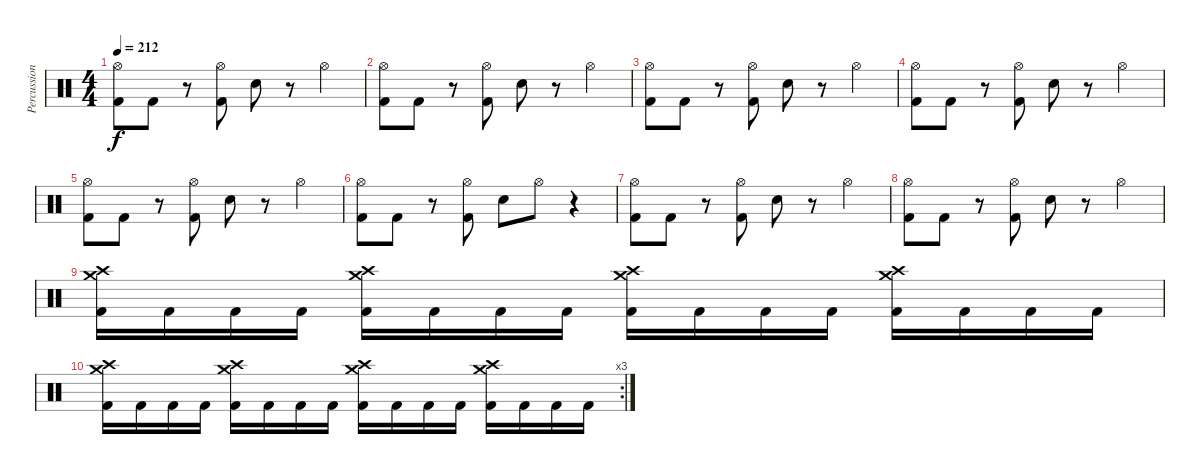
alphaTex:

\track ("Percussion" "Percussion") {instrument percussion}
\staff {score}
\articulation defaults
\ts (4 4)
\tempo 212
\clef neutral
\ks c
("Hi-Hat (open)" "Kick (hit) 2").8{dy f} "Kick (hit) 2".8 r.8 ("Hi-Hat (open)" "Kick (hit) 2").8 "Snare (hit) 2".8 r.8 "Hi-Hat (open)".4 |
("Hi-Hat (open)" "Kick (hit) 2").8 "Kick (hit) 2".8 r.8 ("Hi-Hat (open)" "Kick (hit) 2").8 "Snare (hit) 2".8 r.8 "Hi-Hat (open)".4 |
("Hi-Hat (open)" "Kick (hit) 2").8 "Kick (hit) 2".8 r.8 ("Hi-Hat (open)" "Kick (hit) 2").8 "Snare (hit) 2".8 r.8 "Hi-Hat (open)".4 |
("Hi-Hat (open)" "Kick (hit) 2").8 "Kick (hit) 2".8 r.8 ("Hi-Hat (open)" "Kick (hit) 2").8 "Snare (hit) 2".8 r.8 "Hi-Hat (open)".4 |
("Hi-Hat (open)" "Kick (hit) 2").8 "Kick (hit) 2".8 r.8 ("Hi-Hat (open)" "Kick (hit) 2").8 "Snare (hit) 2".8 r.8 "Hi-Hat (open)".4 |
("Hi-Hat (open)" "Kick (hit) 2").8 "Kick (hit) 2".8 r.8 ("Hi-Hat (open)" "Kick (hit) 2").8 "Snare (hit) 2".8 "Hi-Hat (open)".8 r.4 |
("Hi-Hat (open)" "Kick (hit) 2").8 "Kick (hit) 2".8 r.8 ("Hi-Hat (open)" "Kick (hit) 2").8 "Snare (hit) 2".8 r.8 "Hi-Hat (open)".4 |
("Hi-Hat (open)" "Kick (hit) 2").8 "Kick (hit) 2".8 r.8 ("Hi-Hat (open)" "Kick (hit) 2").8 "Snare (hit) 2".8 r.8 "Hi-Hat (open)".4 |
("Crash high (hit)" "Crash medium (hit)" "Kick (hit) 2").16 "Kick (hit) 2".16 "Kick (hit) 2".16 "Kick (hit) 2".16 ("Crash high (hit)" "Crash medium (hit)" "Kick (hit) 2").16 "Kick (hit) 2".16 "Kick (hit) 2".16 "Kick (hit) 2".16 ("Crash high (hit)" "Crash medium (hit)" "Kick (hit) 2").16 "Kick (hit) 2".16 "Kick (hit) 2".16 "Kick (hit) 2".16 ("Crash high (hit)" "Crash medium (hit)" "Kick (hit) 2").16 "Kick (hit) 2".16 "Kick (hit) 2".16 "Kick (hit) 2".16 |
\rc 3
("Crash high (hit)" "Crash medium (hit)" "Kick (hit) 2").16 "Kick (hit) 2".16 "Kick (hit) 2".16 "Kick (hit) 2".16 ("Crash high (hit)" "Crash medium (hit)" "Kick (hit) 2").16 "Kick (hit) 2".16 "Kick (hit) 2".16 "Kick (hit) 2".16 ("Crash high (hit)" "Crash medium (hit)" "Kick (hit) 2").16 "Kick (hit) 2".16 "Kick (hit) 2".16 "Kick (hit) 2".16 ("Crash high (hit)" "Crash medium (hit)" "Kick (hit) 2").16 "Kick (hit) 2".16 "Kick (hit) 2".16 "Kick (hit) 2".16
